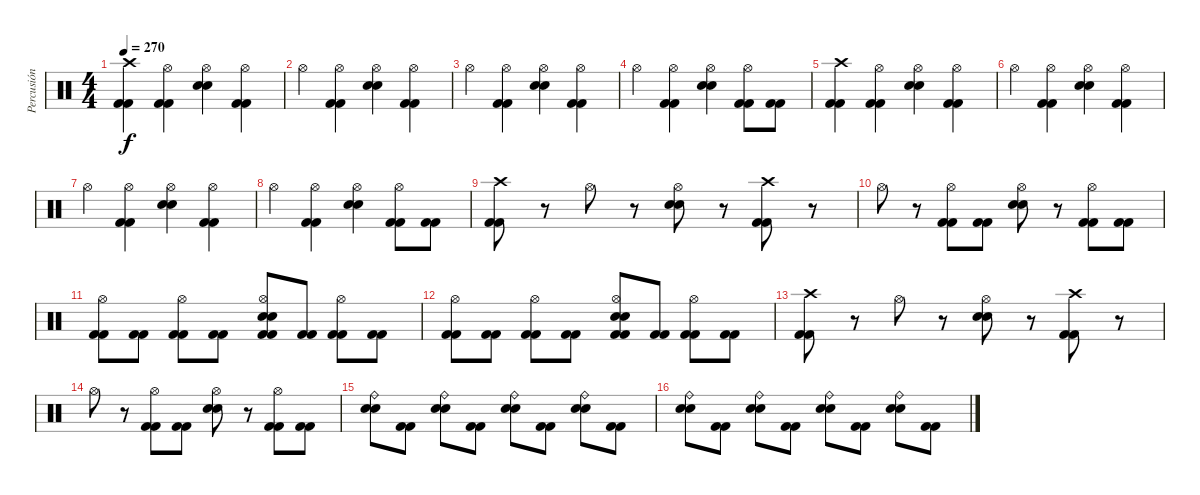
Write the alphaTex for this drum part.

\track ("Percusión" "Percusión") {instrument percussion}
\staff {score}
\articulation defaults
\ts (4 4)
\tempo 270
\clef neutral
\ks c
("Kick (hit) 2" "Kick (hit) 2" "Crash high (hit)").4{dy f} ("Kick (hit) 2" "Kick (hit) 2" "Hi-Hat (open)").4 ("Electric Snare (hit)" "Electric Snare (hit)" "Hi-Hat (open)").4 ("Kick (hit) 2" "Kick (hit) 2" "Hi-Hat (open)").4 |
"Hi-Hat (open)".4 ("Kick (hit) 2" "Kick (hit) 2" "Hi-Hat (open)").4 ("Electric Snare (hit)" "Electric Snare (hit)" "Hi-Hat (open)").4 ("Kick (hit) 2" "Kick (hit) 2" "Hi-Hat (open)").4 |
"Hi-Hat (open)".4 ("Kick (hit) 2" "Kick (hit) 2" "Hi-Hat (open)").4 ("Electric Snare (hit)" "Electric Snare (hit)" "Hi-Hat (open)").4 ("Kick (hit) 2" "Kick (hit) 2" "Hi-Hat (open)").4 |
"Hi-Hat (open)".4 ("Kick (hit) 2" "Kick (hit) 2" "Hi-Hat (open)").4 ("Electric Snare (hit)" "Electric Snare (hit)" "Hi-Hat (open)").4 ("Kick (hit) 2" "Kick (hit) 2" "Hi-Hat (open)").8 ("Kick (hit) 2" "Kick (hit) 2").8 |
("Kick (hit) 2" "Kick (hit) 2" "Crash high (hit)").4 ("Kick (hit) 2" "Kick (hit) 2" "Hi-Hat (open)").4 ("Electric Snare (hit)" "Electric Snare (hit)" "Hi-Hat (open)").4 ("Kick (hit) 2" "Kick (hit) 2" "Hi-Hat (open)").4 |
"Hi-Hat (open)".4 ("Kick (hit) 2" "Kick (hit) 2" "Hi-Hat (open)").4 ("Electric Snare (hit)" "Electric Snare (hit)" "Hi-Hat (open)").4 ("Kick (hit) 2" "Kick (hit) 2" "Hi-Hat (open)").4 |
"Hi-Hat (open)".4 ("Kick (hit) 2" "Kick (hit) 2" "Hi-Hat (open)").4 ("Electric Snare (hit)" "Electric Snare (hit)" "Hi-Hat (open)").4 ("Kick (hit) 2" "Kick (hit) 2" "Hi-Hat (open)").4 |
"Hi-Hat (open)".4 ("Kick (hit) 2" "Kick (hit) 2" "Hi-Hat (open)").4 ("Electric Snare (hit)" "Electric Snare (hit)" "Hi-Hat (open)").4 ("Kick (hit) 2" "Kick (hit) 2" "Hi-Hat (open)").8 ("Kick (hit) 2" "Kick (hit) 2").8 |
("Kick (hit) 2" "Kick (hit) 2" "Crash high (hit)").8 r.8 "Hi-Hat (open)".8 r.8 ("Electric Snare (hit)" "Electric Snare (hit)" "Hi-Hat (open)").8 r.8 ("Kick (hit) 2" "Kick (hit) 2" "Crash high (hit)").8 r.8 |
"Hi-Hat (open)".8 r.8 ("Kick (hit) 2" "Kick (hit) 2" "Hi-Hat (open)").8 ("Kick (hit) 2" "Kick (hit) 2").8 ("Electric Snare (hit)" "Electric Snare (hit)" "Hi-Hat (open)").8 r.8 ("Kick (hit) 2" "Kick (hit) 2" "Hi-Hat (open)").8 ("Kick (hit) 2" "Kick (hit) 2").8 |
("Kick (hit) 2" "Kick (hit) 2" "Hi-Hat (open)").8 ("Kick (hit) 2" "Kick (hit) 2").8 ("Kick (hit) 2" "Kick (hit) 2" "Hi-Hat (open)").8 ("Kick (hit) 2" "Kick (hit) 2").8 ("Kick (hit) 2" "Kick (hit) 2" "Electric Snare (hit)" "Electric Snare (hit)" "Hi-Hat (open)").8 ("Kick (hit) 2" "Kick (hit) 2").8 ("Kick (hit) 2" "Kick (hit) 2" "Hi-Hat (open)").8 ("Kick (hit) 2" "Kick (hit) 2").8 |
("Kick (hit) 2" "Kick (hit) 2" "Hi-Hat (open)").8 ("Kick (hit) 2" "Kick (hit) 2").8 ("Kick (hit) 2" "Kick (hit) 2" "Hi-Hat (open)").8 ("Kick (hit) 2" "Kick (hit) 2").8 ("Kick (hit) 2" "Kick (hit) 2" "Electric Snare (hit)" "Electric Snare (hit)" "Hi-Hat (open)").8 ("Kick (hit) 2" "Kick (hit) 2").8 ("Kick (hit) 2" "Kick (hit) 2" "Hi-Hat (open)").8 ("Kick (hit) 2" "Kick (hit) 2").8 |
("Kick (hit) 2" "Kick (hit) 2" "Crash high (hit)").8 r.8 "Hi-Hat (open)".8 r.8 ("Electric Snare (hit)" "Electric Snare (hit)" "Hi-Hat (open)").8 r.8 ("Kick (hit) 2" "Kick (hit) 2" "Crash high (hit)").8 r.8 |
"Hi-Hat (open)".8 r.8 ("Kick (hit) 2" "Kick (hit) 2" "Hi-Hat (open)").8 ("Kick (hit) 2" "Kick (hit) 2").8 ("Electric Snare (hit)" "Electric Snare (hit)" "Hi-Hat (open)").8 r.8 ("Kick (hit) 2" "Kick (hit) 2" "Hi-Hat (open)").8 ("Kick (hit) 2" "Kick (hit) 2").8 |
("Electric Snare (hit)" "Electric Snare (hit)" "Ride (bell)").8 ("Kick (hit) 2" "Kick (hit) 2").8 ("Electric Snare (hit)" "Electric Snare (hit)" "Ride (bell)").8 ("Kick (hit) 2" "Kick (hit) 2").8 ("Electric Snare (hit)" "Electric Snare (hit)" "Ride (bell)").8 ("Kick (hit) 2" "Kick (hit) 2").8 ("Electric Snare (hit)" "Electric Snare (hit)" "Ride (bell)").8 ("Kick (hit) 2" "Kick (hit) 2").8 |
("Electric Snare (hit)" "Electric Snare (hit)" "Ride (bell)").8 ("Kick (hit) 2" "Kick (hit) 2").8 ("Electric Snare (hit)" "Electric Snare (hit)" "Ride (bell)").8 ("Kick (hit) 2" "Kick (hit) 2").8 ("Electric Snare (hit)" "Electric Snare (hit)" "Ride (bell)").8 ("Kick (hit) 2" "Kick (hit) 2").8 ("Electric Snare (hit)" "Electric Snare (hit)" "Ride (bell)").8 ("Kick (hit) 2" "Kick (hit) 2").8
